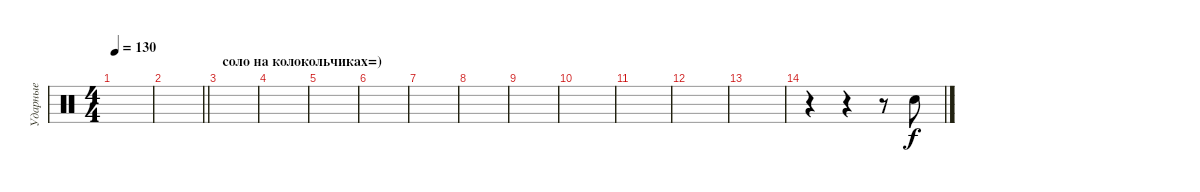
\track ("Ударные" "Ударные") {instrument percussion}
\staff {score}
\articulation defaults
\ts (4 4)
\tempo 130
\clef neutral
\ks c
|
\barLineRight lightlight
|
\section ("" "соло на колокольчиках=)")
|
|
|
|
|
|
|
|
|
|
|
r.4 r.4 r.8 "Snare (hit)".8
